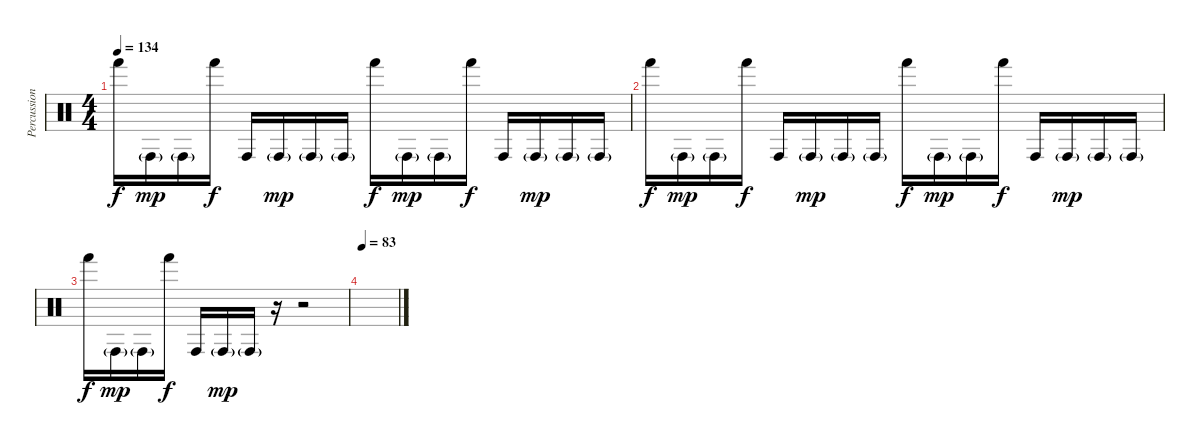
\track ("Percussion" "Percussion") {instrument percussion}
\staff {score}
\articulation defaults
\ts (4 4)
\tempo 134
\clef neutral
\ks c "Hand (hit)".16{dy f} "Conga high (hit)"{g}.16{dy mp} "Conga high (hit)"{g}.16 "Hand (hit)".16{dy f} "Conga high (hit)".16 "Conga high (hit)"{g}.16{dy mp} "Conga high (hit)"{g}.16 "Conga high (hit)"{g}.16 "Hand (hit)".16{dy f} "Conga high (hit)"{g}.16{dy mp} "Conga high (hit)"{g}.16 "Hand (hit)".16{dy f} "Conga high (hit)".16 "Conga high (hit)"{g}.16{dy mp} "Conga high (hit)"{g}.16 "Conga high (hit)"{g}.16
|
"Hand (hit)".16{dy f} "Conga high (hit)"{g}.16{dy mp} "Conga high (hit)"{g}.16 "Hand (hit)".16{dy f} "Conga high (hit)".16 "Conga high (hit)"{g}.16{dy mp} "Conga high (hit)"{g}.16 "Conga high (hit)"{g}.16 "Hand (hit)".16{dy f} "Conga high (hit)"{g}.16{dy mp} "Conga high (hit)"{g}.16 "Hand (hit)".16{dy f} "Conga high (hit)".16 "Conga high (hit)"{g}.16{dy mp} "Conga high (hit)"{g}.16 "Conga high (hit)"{g}.16 |
"Hand (hit)".16{dy f} "Conga high (hit)"{g}.16{dy mp} "Conga high (hit)"{g}.16 "Hand (hit)".16{dy f} "Conga high (hit)".16 "Conga high (hit)"{g}.16{dy mp} "Conga high (hit)"{g}.16 r.16 r.2 |
\tempo 83
